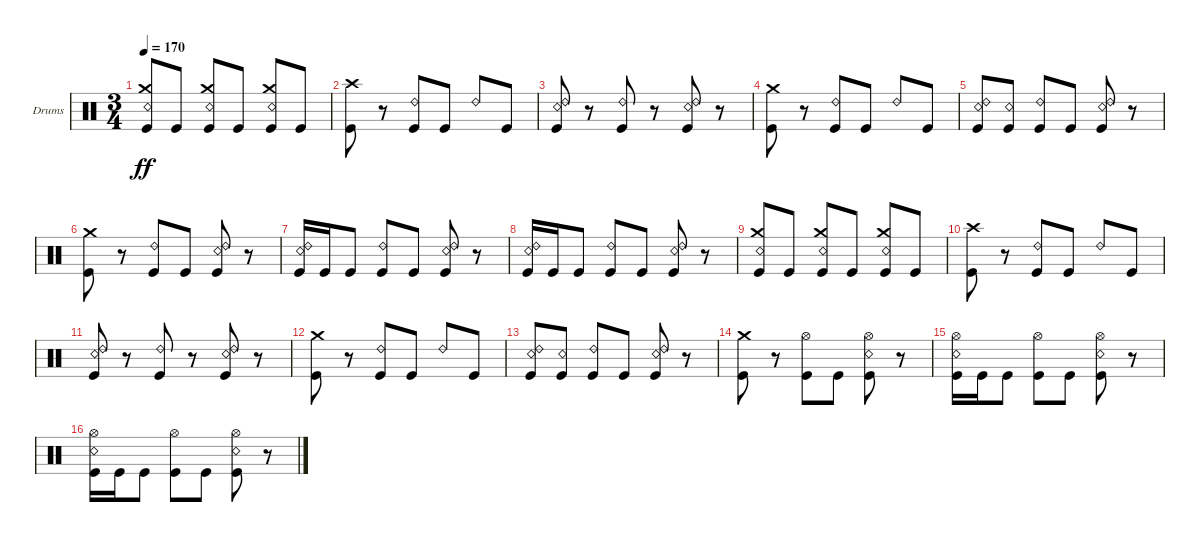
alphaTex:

\bracketExtendMode groupsimilarinstruments
\firstSystemTrackNameOrientation horizontal
\otherSystemsTrackNameOrientation horizontal
\track ("Kaleb - Drums" "Drums") {instrument percussion}
\staff {score}
\articulation defaults
\ts (3 4)
\tempo 170
\clef neutral
\ks c
("Kick (hit)" "Crash medium (hit)" "Snare (rim shot)").8{dy ff} "Kick (hit)".8 ("Kick (hit)" "Crash medium (hit)" "Snare (rim shot)").8 "Kick (hit)".8 ("Kick (hit)" "Crash medium (hit)" "Snare (rim shot)").8 "Kick (hit)".8 |
("Kick (hit)" "Crash high (hit)").8 r.8 ("Kick (hit)" "Ride (bell) 2").8 "Kick (hit)".8 "Ride (bell) 2".8 "Kick (hit)".8 |
("Kick (hit)" "Ride (bell) 2" "Snare (rim shot)").8 r.8 ("Kick (hit)" "Ride (bell) 2").8 r.8 ("Kick (hit)" "Ride (bell) 2" "Snare (rim shot)").8 r.8 |
("Kick (hit)" "Crash medium (hit)").8 r.8 ("Kick (hit)" "Ride (bell) 2").8 "Kick (hit)".8 "Ride (bell) 2".8 "Kick (hit)".8 |
("Kick (hit)" "Ride (bell) 2" "Snare (rim shot)").8 ("Kick (hit)" "Snare (rim shot)").8 ("Kick (hit)" "Ride (bell) 2").8 "Kick (hit)".8 ("Kick (hit)" "Ride (bell) 2" "Snare (rim shot)").8 r.8 |
("Kick (hit)" "Crash medium (hit)").8 r.8 ("Kick (hit)" "Ride (bell) 2").8 "Kick (hit)".8 ("Kick (hit)" "Snare (rim shot)" "Ride (bell) 2").8 r.8 |
("Kick (hit)" "Snare (rim shot)" "Ride (bell) 2").16 "Kick (hit)".16 "Kick (hit)".8 ("Kick (hit)" "Ride (bell) 2").8 "Kick (hit)".8 ("Kick (hit)" "Snare (rim shot)" "Ride (bell) 2").8 r.8 |
("Kick (hit)" "Snare (rim shot)" "Ride (bell) 2").16 "Kick (hit)".16 "Kick (hit)".8 ("Kick (hit)" "Ride (bell) 2").8 "Kick (hit)".8 ("Kick (hit)" "Snare (rim shot)" "Ride (bell) 2").8 r.8 |
("Kick (hit)" "Crash medium (hit)" "Snare (rim shot)").8 "Kick (hit)".8 ("Kick (hit)" "Crash medium (hit)" "Snare (rim shot)").8 "Kick (hit)".8 ("Kick (hit)" "Crash medium (hit)" "Snare (rim shot)").8 "Kick (hit)".8 |
("Kick (hit)" "Crash high (hit)").8 r.8 ("Kick (hit)" "Ride (bell) 2").8 "Kick (hit)".8 "Ride (bell) 2".8 "Kick (hit)".8 |
("Kick (hit)" "Ride (bell) 2" "Snare (rim shot)").8 r.8 ("Kick (hit)" "Ride (bell) 2").8 r.8 ("Kick (hit)" "Ride (bell) 2" "Snare (rim shot)").8 r.8 |
("Kick (hit)" "Crash medium (hit)").8 r.8 ("Kick (hit)" "Ride (bell) 2").8 "Kick (hit)".8 "Ride (bell) 2".8 "Kick (hit)".8 |
("Kick (hit)" "Ride (bell) 2" "Snare (rim shot)").8 ("Kick (hit)" "Snare (rim shot)").8 ("Kick (hit)" "Ride (bell) 2").8 "Kick (hit)".8 ("Kick (hit)" "Ride (bell) 2" "Snare (rim shot)").8 r.8 |
("Kick (hit)" "Crash medium (hit)").8 r.8 ("Kick (hit)" "Hi-Hat (open)").8 "Kick (hit)".8 ("Kick (hit)" "Hi-Hat (open)" "Snare (rim shot)").8 r.8 |
("Kick (hit)" "Hi-Hat (open)" "Snare (rim shot)").16 "Kick (hit)".16 "Kick (hit)".8 ("Kick (hit)" "Hi-Hat (open)").8 "Kick (hit)".8 ("Kick (hit)" "Hi-Hat (open)" "Snare (rim shot)").8 r.8 |
("Kick (hit)" "Hi-Hat (open)" "Snare (rim shot)").16 "Kick (hit)".16 "Kick (hit)".8 ("Kick (hit)" "Hi-Hat (open)").8 "Kick (hit)".8 ("Kick (hit)" "Hi-Hat (open)" "Snare (rim shot)").8 r.8
